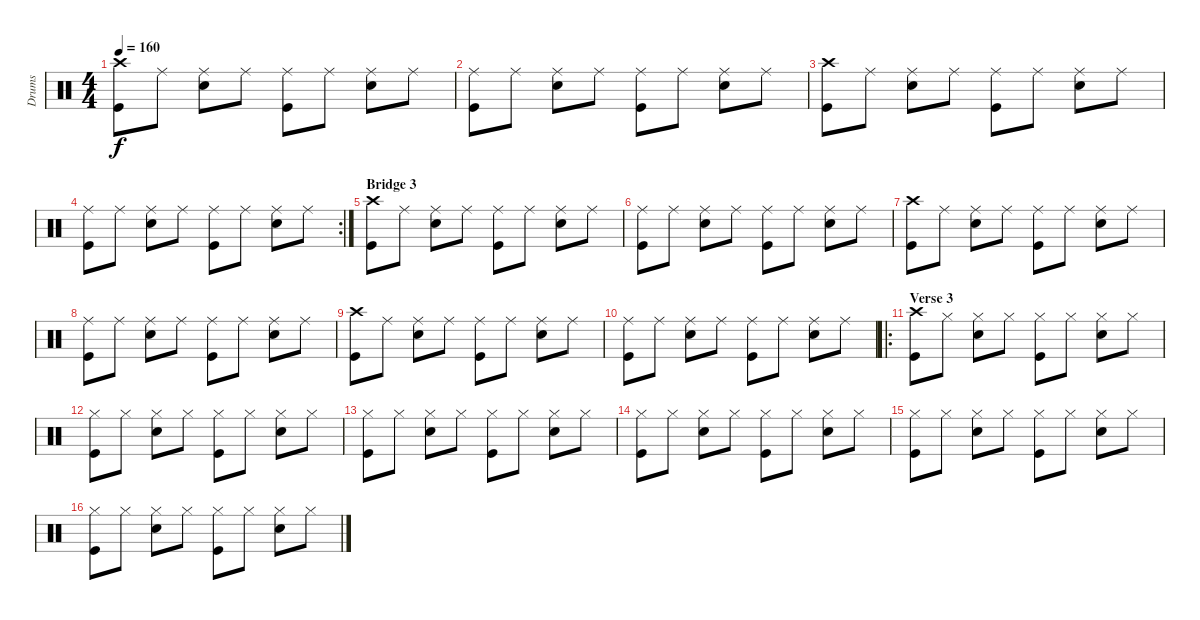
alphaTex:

\track ("Drums" "Drums") {instrument percussion}
\staff {score}
\articulation defaults
\ts (4 4)
\tempo 160
\clef neutral
\ks c
("Crash high (hit)" "Kick (hit)").8{dy f} "Ride (middle)".8 ("Ride (middle)" "Snare (hit) 2").8 "Ride (middle)".8 ("Ride (middle)" "Kick (hit)").8 "Ride (middle)".8 ("Ride (middle)" "Snare (hit) 2").8 "Ride (middle)".8 |
("Ride (middle)" "Kick (hit)").8 "Ride (middle)".8 ("Ride (middle)" "Snare (hit) 2").8 "Ride (middle)".8 ("Ride (middle)" "Kick (hit)").8 "Ride (middle)".8 ("Ride (middle)" "Snare (hit) 2").8 "Ride (middle)".8 |
("Crash high (hit)" "Kick (hit)").8 "Ride (middle)".8 ("Ride (middle)" "Snare (hit) 2").8 "Ride (middle)".8 ("Ride (middle)" "Kick (hit)").8 "Ride (middle)".8 ("Ride (middle)" "Snare (hit) 2").8 "Ride (middle)".8 |
\rc 2
("Ride (middle)" "Kick (hit)").8 "Ride (middle)".8 ("Ride (middle)" "Snare (hit) 2").8 "Ride (middle)".8 ("Ride (middle)" "Kick (hit)").8 "Ride (middle)".8 ("Ride (middle)" "Snare (hit) 2").8 "Ride (middle)".8 |
\section ("" "Bridge 3")
("Crash high (hit)" "Kick (hit)").8 "Ride (middle)".8 ("Ride (middle)" "Snare (hit) 2").8 "Ride (middle)".8 ("Ride (middle)" "Kick (hit)").8 "Ride (middle)".8 ("Ride (middle)" "Snare (hit) 2").8 "Ride (middle)".8 |
("Ride (middle)" "Kick (hit)").8 "Ride (middle)".8 ("Ride (middle)" "Snare (hit) 2").8 "Ride (middle)".8 ("Ride (middle)" "Kick (hit)").8 "Ride (middle)".8 ("Ride (middle)" "Snare (hit) 2").8 "Ride (middle)".8 |
("Crash high (hit)" "Kick (hit)").8 "Ride (middle)".8 ("Ride (middle)" "Snare (hit) 2").8 "Ride (middle)".8 ("Ride (middle)" "Kick (hit)").8 "Ride (middle)".8 ("Ride (middle)" "Snare (hit) 2").8 "Ride (middle)".8 |
("Ride (middle)" "Kick (hit)").8 "Ride (middle)".8 ("Ride (middle)" "Snare (hit) 2").8 "Ride (middle)".8 ("Ride (middle)" "Kick (hit)").8 "Ride (middle)".8 ("Ride (middle)" "Snare (hit) 2").8 "Ride (middle)".8 |
("Crash high (hit)" "Kick (hit)").8 "Ride (middle)".8 ("Ride (middle)" "Snare (hit) 2").8 "Ride (middle)".8 ("Ride (middle)" "Kick (hit)").8 "Ride (middle)".8 ("Ride (middle)" "Snare (hit) 2").8 "Ride (middle)".8 |
("Ride (middle)" "Kick (hit)").8 "Ride (middle)".8 ("Ride (middle)" "Snare (hit) 2").8 "Ride (middle)".8 ("Ride (middle)" "Kick (hit)").8 "Ride (middle)".8 ("Ride (middle)" "Snare (hit) 2").8 "Ride (middle)".8 |
\ro
\section ("" "Verse 3")
("Crash high (hit)" "Kick (hit)").8 "Hi-Hat (closed)".8 ("Hi-Hat (closed)" "Snare (hit) 2").8 "Hi-Hat (closed)".8 ("Hi-Hat (closed)" "Kick (hit)").8 "Hi-Hat (closed)".8 ("Hi-Hat (closed)" "Snare (hit) 2").8 "Hi-Hat (closed)".8 |
("Hi-Hat (closed)" "Kick (hit)").8 "Hi-Hat (closed)".8 ("Hi-Hat (closed)" "Snare (hit) 2").8 "Hi-Hat (closed)".8 ("Hi-Hat (closed)" "Kick (hit)").8 "Hi-Hat (closed)".8 ("Hi-Hat (closed)" "Snare (hit) 2").8 "Hi-Hat (closed)".8 |
("Hi-Hat (closed)" "Kick (hit)").8 "Hi-Hat (closed)".8 ("Hi-Hat (closed)" "Snare (hit) 2").8 "Hi-Hat (closed)".8 ("Hi-Hat (closed)" "Kick (hit)").8 "Hi-Hat (closed)".8 ("Hi-Hat (closed)" "Snare (hit) 2").8 "Hi-Hat (closed)".8 |
("Hi-Hat (closed)" "Kick (hit)").8 "Hi-Hat (closed)".8 ("Hi-Hat (closed)" "Snare (hit) 2").8 "Hi-Hat (closed)".8 ("Hi-Hat (closed)" "Kick (hit)").8 "Hi-Hat (closed)".8 ("Hi-Hat (closed)" "Snare (hit) 2").8 "Hi-Hat (closed)".8 |
("Hi-Hat (closed)" "Kick (hit)").8 "Hi-Hat (closed)".8 ("Hi-Hat (closed)" "Snare (hit) 2").8 "Hi-Hat (closed)".8 ("Hi-Hat (closed)" "Kick (hit)").8 "Hi-Hat (closed)".8 ("Hi-Hat (closed)" "Snare (hit) 2").8 "Hi-Hat (closed)".8 |
("Hi-Hat (closed)" "Kick (hit)").8 "Hi-Hat (closed)".8 ("Hi-Hat (closed)" "Snare (hit) 2").8 "Hi-Hat (closed)".8 ("Hi-Hat (closed)" "Kick (hit)").8 "Hi-Hat (closed)".8 ("Hi-Hat (closed)" "Snare (hit) 2").8 "Hi-Hat (closed)".8
